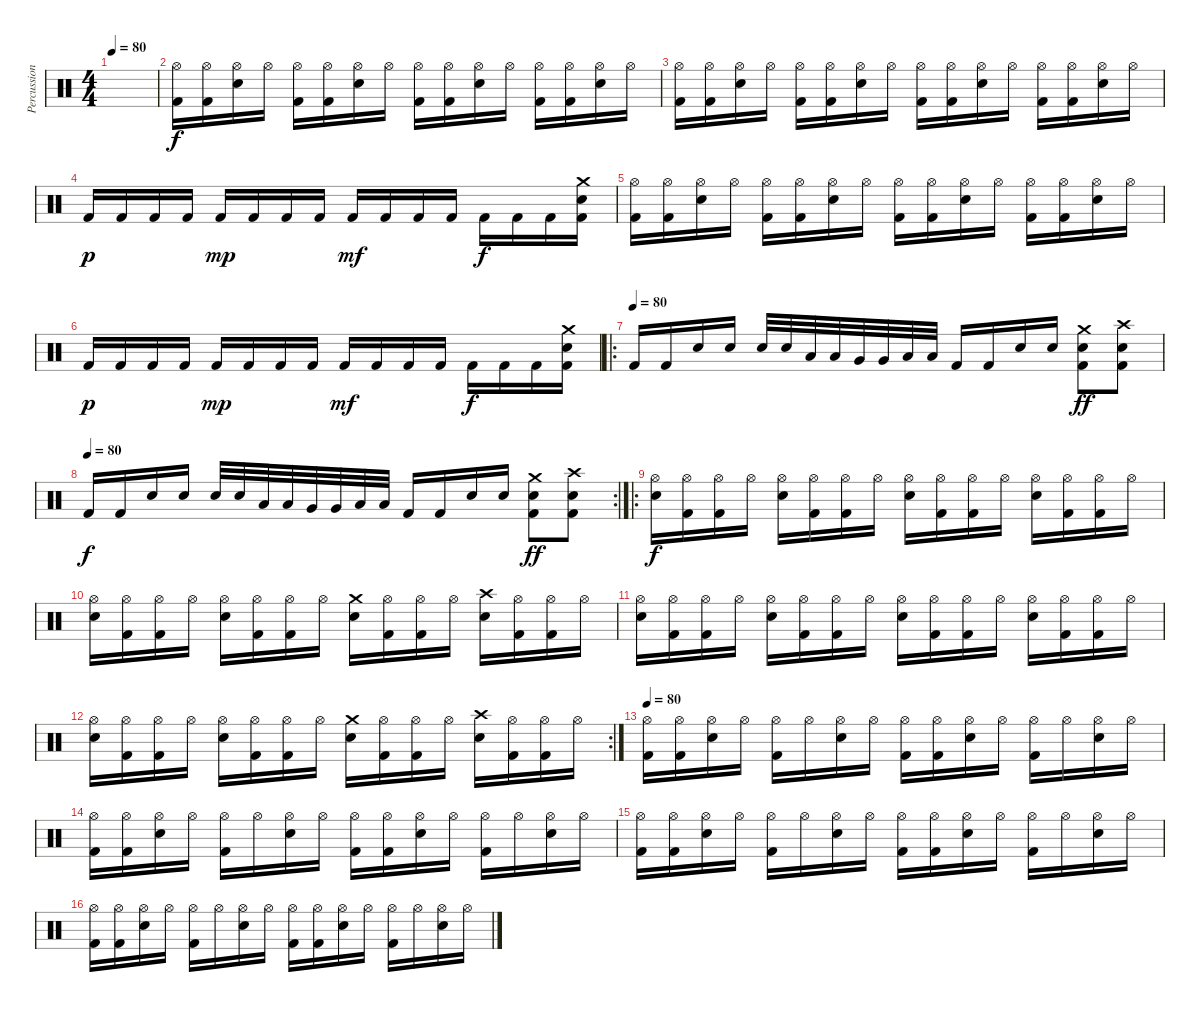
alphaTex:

\track ("Percussion" "Percussion") {instrument percussion}
\staff {score}
\articulation defaults
\ts (4 4)
\tempo 80
\clef neutral
\ks c
|
("Hi-Hat (open)" "Kick (hit) 2").16 ("Hi-Hat (open)" "Kick (hit) 2").16 ("Hi-Hat (open)" "Snare (hit) 2").16 "Hi-Hat (open)".16 ("Hi-Hat (open)" "Kick (hit) 2").16 ("Hi-Hat (open)" "Kick (hit) 2").16 ("Hi-Hat (open)" "Snare (hit) 2").16 "Hi-Hat (open)".16 ("Hi-Hat (open)" "Kick (hit) 2").16 ("Hi-Hat (open)" "Kick (hit) 2").16 ("Hi-Hat (open)" "Snare (hit) 2").16 "Hi-Hat (open)".16 ("Hi-Hat (open)" "Kick (hit) 2").16 ("Hi-Hat (open)" "Kick (hit) 2").16 ("Hi-Hat (open)" "Snare (hit) 2").16 "Hi-Hat (open)".16 |
("Hi-Hat (open)" "Kick (hit) 2").16 ("Hi-Hat (open)" "Kick (hit) 2").16 ("Hi-Hat (open)" "Snare (hit) 2").16 "Hi-Hat (open)".16 ("Hi-Hat (open)" "Kick (hit) 2").16 ("Hi-Hat (open)" "Kick (hit) 2").16 ("Hi-Hat (open)" "Snare (hit) 2").16 "Hi-Hat (open)".16 ("Hi-Hat (open)" "Kick (hit) 2").16 ("Hi-Hat (open)" "Kick (hit) 2").16 ("Hi-Hat (open)" "Snare (hit) 2").16 "Hi-Hat (open)".16 ("Hi-Hat (open)" "Kick (hit) 2").16 ("Hi-Hat (open)" "Kick (hit) 2").16 ("Hi-Hat (open)" "Snare (hit) 2").16 "Hi-Hat (open)".16 |
"Kick (hit) 2".16{dy p} "Kick (hit) 2".16 "Kick (hit) 2".16 "Kick (hit) 2".16 "Kick (hit) 2".16{dy mp} "Kick (hit) 2".16 "Kick (hit) 2".16 "Kick (hit) 2".16 "Kick (hit) 2".16{dy mf} "Kick (hit) 2".16 "Kick (hit) 2".16 "Kick (hit) 2".16 "Kick (hit) 2".16{dy f} "Kick (hit) 2".16 "Kick (hit) 2".16 ("Crash medium (hit)" "Snare (hit) 2" "Kick (hit) 2").16 |
("Hi-Hat (open)" "Kick (hit) 2").16 ("Hi-Hat (open)" "Kick (hit) 2").16 ("Hi-Hat (open)" "Snare (hit) 2").16 "Hi-Hat (open)".16 ("Hi-Hat (open)" "Kick (hit) 2").16 ("Hi-Hat (open)" "Kick (hit) 2").16 ("Hi-Hat (open)" "Snare (hit) 2").16 "Hi-Hat (open)".16 ("Hi-Hat (open)" "Kick (hit) 2").16 ("Hi-Hat (open)" "Kick (hit) 2").16 ("Hi-Hat (open)" "Snare (hit) 2").16 "Hi-Hat (open)".16 ("Hi-Hat (open)" "Kick (hit) 2").16 ("Hi-Hat (open)" "Kick (hit) 2").16 ("Hi-Hat (open)" "Snare (hit) 2").16 "Hi-Hat (open)".16 |
"Kick (hit) 2".16{dy p} "Kick (hit) 2".16 "Kick (hit) 2".16 "Kick (hit) 2".16 "Kick (hit) 2".16{dy mp} "Kick (hit) 2".16 "Kick (hit) 2".16 "Kick (hit) 2".16 "Kick (hit) 2".16{dy mf} "Kick (hit) 2".16 "Kick (hit) 2".16 "Kick (hit) 2".16 "Kick (hit) 2".16{dy f} "Kick (hit) 2".16 "Kick (hit) 2".16 ("Crash medium (hit)" "Snare (hit) 2" "Kick (hit) 2").16 |
\ro
\tempo (80)
"Kick (hit) 2".16 "Kick (hit) 2".16 "Snare (hit) 2".16 "Snare (hit) 2".16 "Snare (hit) 2".32 "Snare (hit) 2".32 "Low Floor Tom (hit)".32 "Low Floor Tom (hit)".32 "Very Low Tom (hit)".32 "Very Low Tom (hit)".32 "Low Tom (hit)".32 "Low Tom (hit)".32 "Kick (hit) 2".16 "Kick (hit) 2".16 "Snare (hit) 2".16 "Snare (hit) 2".16 ("Crash medium (hit)" "Snare (hit) 2" "Kick (hit) 2").8{dy ff} ("Crash high (hit)" "Snare (hit) 2" "Kick (hit) 2").8 |
\rc 2
\tempo (80)
"Kick (hit) 2".16{dy f} "Kick (hit) 2".16 "Snare (hit) 2".16 "Snare (hit) 2".16 "Snare (hit) 2".32 "Snare (hit) 2".32 "Low Floor Tom (hit)".32 "Low Floor Tom (hit)".32 "Very Low Tom (hit)".32 "Very Low Tom (hit)".32 "Low Tom (hit)".32 "Low Tom (hit)".32 "Kick (hit) 2".16 "Kick (hit) 2".16 "Snare (hit) 2".16 "Snare (hit) 2".16 ("Crash medium (hit)" "Snare (hit) 2" "Kick (hit) 2").8{dy ff} ("Crash high (hit)" "Snare (hit) 2" "Kick (hit) 2").8 |
\ro
("Hi-Hat (open)" "Snare (hit) 2").16{dy f} ("Hi-Hat (open)" "Kick (hit) 2").16 ("Hi-Hat (open)" "Kick (hit) 2").16 "Hi-Hat (open)".16 ("Hi-Hat (open)" "Snare (hit) 2").16 ("Hi-Hat (open)" "Kick (hit) 2").16 ("Hi-Hat (open)" "Kick (hit) 2").16 "Hi-Hat (open)".16 ("Hi-Hat (open)" "Snare (hit) 2").16 ("Hi-Hat (open)" "Kick (hit) 2").16 ("Hi-Hat (open)" "Kick (hit) 2").16 "Hi-Hat (open)".16 ("Hi-Hat (open)" "Snare (hit) 2").16 ("Hi-Hat (open)" "Kick (hit) 2").16 ("Hi-Hat (open)" "Kick (hit) 2").16 "Hi-Hat (open)".16 |
("Hi-Hat (open)" "Snare (hit) 2").16 ("Hi-Hat (open)" "Kick (hit) 2").16 ("Hi-Hat (open)" "Kick (hit) 2").16 "Hi-Hat (open)".16 ("Hi-Hat (open)" "Snare (hit) 2").16 ("Hi-Hat (open)" "Kick (hit) 2").16 ("Hi-Hat (open)" "Kick (hit) 2").16 "Hi-Hat (open)".16 ("Crash medium (hit)" "Snare (hit) 2").16 ("Hi-Hat (open)" "Kick (hit) 2").16 ("Hi-Hat (open)" "Kick (hit) 2").16 "Hi-Hat (open)".16 ("Crash high (hit)" "Snare (hit) 2").16 ("Hi-Hat (open)" "Kick (hit) 2").16 ("Hi-Hat (open)" "Kick (hit) 2").16 "Hi-Hat (open)".16 |
("Hi-Hat (open)" "Snare (hit) 2").16 ("Hi-Hat (open)" "Kick (hit) 2").16 ("Hi-Hat (open)" "Kick (hit) 2").16 "Hi-Hat (open)".16 ("Hi-Hat (open)" "Snare (hit) 2").16 ("Hi-Hat (open)" "Kick (hit) 2").16 ("Hi-Hat (open)" "Kick (hit) 2").16 "Hi-Hat (open)".16 ("Hi-Hat (open)" "Snare (hit) 2").16 ("Hi-Hat (open)" "Kick (hit) 2").16 ("Hi-Hat (open)" "Kick (hit) 2").16 "Hi-Hat (open)".16 ("Hi-Hat (open)" "Snare (hit) 2").16 ("Hi-Hat (open)" "Kick (hit) 2").16 ("Hi-Hat (open)" "Kick (hit) 2").16 "Hi-Hat (open)".16 |
\rc 2
("Hi-Hat (open)" "Snare (hit) 2").16 ("Hi-Hat (open)" "Kick (hit) 2").16 ("Hi-Hat (open)" "Kick (hit) 2").16 "Hi-Hat (open)".16 ("Hi-Hat (open)" "Snare (hit) 2").16 ("Hi-Hat (open)" "Kick (hit) 2").16 ("Hi-Hat (open)" "Kick (hit) 2").16 "Hi-Hat (open)".16 ("Crash medium (hit)" "Snare (hit) 2").16 ("Hi-Hat (open)" "Kick (hit) 2").16 ("Hi-Hat (open)" "Kick (hit) 2").16 "Hi-Hat (open)".16 ("Crash high (hit)" "Snare (hit) 2").16 ("Hi-Hat (open)" "Kick (hit) 2").16 ("Hi-Hat (open)" "Kick (hit) 2").16 "Hi-Hat (open)".16 |
\tempo 80
("Hi-Hat (open)" "Kick (hit) 2").16 ("Hi-Hat (open)" "Kick (hit) 2").16 ("Hi-Hat (open)" "Snare (hit) 2").16 "Hi-Hat (open)".16 ("Hi-Hat (open)" "Kick (hit) 2").16 "Hi-Hat (open)".16 ("Hi-Hat (open)" "Snare (hit) 2").16 "Hi-Hat (open)".16 ("Hi-Hat (open)" "Kick (hit) 2").16 ("Hi-Hat (open)" "Kick (hit) 2").16 ("Hi-Hat (open)" "Snare (hit) 2").16 "Hi-Hat (open)".16 ("Hi-Hat (open)" "Kick (hit) 2").16 "Hi-Hat (open)".16 ("Hi-Hat (open)" "Snare (hit) 2").16 "Hi-Hat (open)".16 |
("Hi-Hat (open)" "Kick (hit) 2").16 ("Hi-Hat (open)" "Kick (hit) 2").16 ("Hi-Hat (open)" "Snare (hit) 2").16 "Hi-Hat (open)".16 ("Hi-Hat (open)" "Kick (hit) 2").16 "Hi-Hat (open)".16 ("Hi-Hat (open)" "Snare (hit) 2").16 "Hi-Hat (open)".16 ("Hi-Hat (open)" "Kick (hit) 2").16 ("Hi-Hat (open)" "Kick (hit) 2").16 ("Hi-Hat (open)" "Snare (hit) 2").16 "Hi-Hat (open)".16 ("Hi-Hat (open)" "Kick (hit) 2").16 "Hi-Hat (open)".16 ("Hi-Hat (open)" "Snare (hit) 2").16 "Hi-Hat (open)".16 |
("Hi-Hat (open)" "Kick (hit) 2").16 ("Hi-Hat (open)" "Kick (hit) 2").16 ("Hi-Hat (open)" "Snare (hit) 2").16 "Hi-Hat (open)".16 ("Hi-Hat (open)" "Kick (hit) 2").16 "Hi-Hat (open)".16 ("Hi-Hat (open)" "Snare (hit) 2").16 "Hi-Hat (open)".16 ("Hi-Hat (open)" "Kick (hit) 2").16 ("Hi-Hat (open)" "Kick (hit) 2").16 ("Hi-Hat (open)" "Snare (hit) 2").16 "Hi-Hat (open)".16 ("Hi-Hat (open)" "Kick (hit) 2").16 "Hi-Hat (open)".16 ("Hi-Hat (open)" "Snare (hit) 2").16 "Hi-Hat (open)".16 |
("Hi-Hat (open)" "Kick (hit) 2").16 ("Hi-Hat (open)" "Kick (hit) 2").16 ("Hi-Hat (open)" "Snare (hit) 2").16 "Hi-Hat (open)".16 ("Hi-Hat (open)" "Kick (hit) 2").16 "Hi-Hat (open)".16 ("Hi-Hat (open)" "Snare (hit) 2").16 "Hi-Hat (open)".16 ("Hi-Hat (open)" "Kick (hit) 2").16 ("Hi-Hat (open)" "Kick (hit) 2").16 ("Hi-Hat (open)" "Snare (hit) 2").16 "Hi-Hat (open)".16 ("Hi-Hat (open)" "Kick (hit) 2").16 "Hi-Hat (open)".16 ("Hi-Hat (open)" "Snare (hit) 2").16 "Hi-Hat (open)".16
